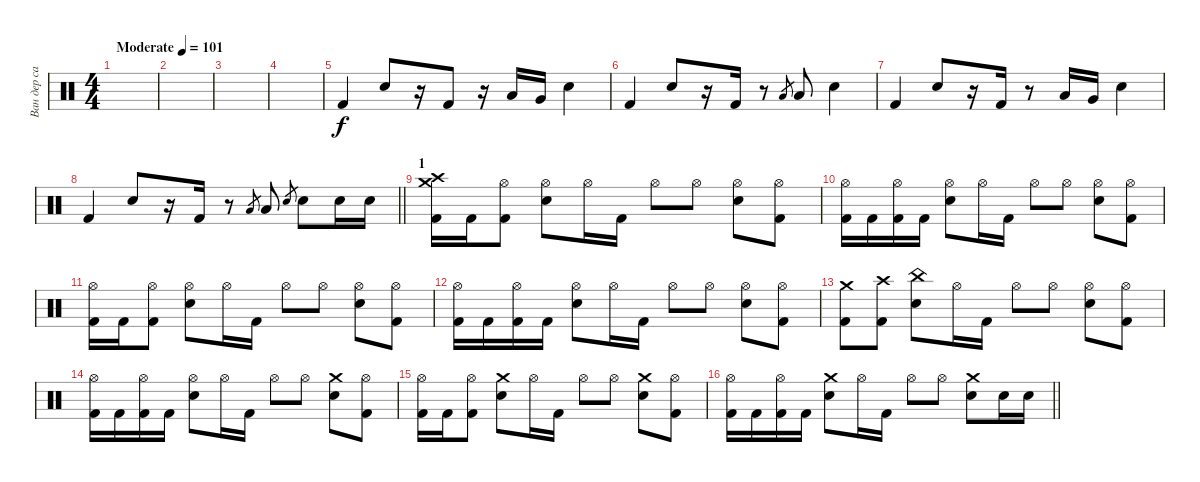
\track ("Ван дер сар" "Ван дер са") {instrument percussion}
\staff {score}
\articulation defaults
\ts (4 4)
\tempo (101 "Moderate")
\clef neutral
\ks c
|
|
|
|
"Kick (hit) 2".4 "Snare (hit) 2".8 r.16 "Kick (hit) 2".8 r.16 "Low Tom (hit)".16 "Very Low Tom (hit)".16 "Snare (hit) 2".4 |
"Kick (hit) 2".4 "Snare (hit) 2".8 r.16 "Kick (hit) 2".16 r.8 "Low Tom (hit)".8{gr} "Low Tom (hit)".8 "Snare (hit) 2".4 |
"Kick (hit) 2".4 "Snare (hit) 2".8 r.16 "Kick (hit) 2".16 r.8 "Low Tom (hit)".16 "Very Low Tom (hit)".16 "Snare (hit) 2".4 |
\barLineRight lightlight "Kick (hit) 2".4 "Snare (hit) 2".8
r.16 "Kick (hit) 2".16 r.8 "Low Tom (hit)".8{gr} "Low Tom (hit)".8 "Snare (hit) 2".8{gr} "Snare (hit) 2".8 "Snare (hit) 2".16 "Snare (hit) 2".16 |
\section ("" "1")
("Crash medium (hit)" "Crash high (hit)" "Kick (hit) 2").16 "Kick (hit) 2".16 ("Hi-Hat (open)" "Kick (hit) 2").8 ("Hi-Hat (open)" "Snare (hit) 2").8 "Hi-Hat (open)".16 "Kick (hit) 2".16 "Hi-Hat (open)".8 "Hi-Hat (open)".8 ("Hi-Hat (open)" "Snare (hit) 2").8 ("Hi-Hat (open)" "Kick (hit) 2").8 |
("Hi-Hat (open)" "Kick (hit) 2").16 "Kick (hit) 2".16 ("Hi-Hat (open)" "Kick (hit) 2").16 "Kick (hit) 2".16 ("Hi-Hat (open)" "Snare (hit) 2").8 "Hi-Hat (open)".16 "Kick (hit) 2".16 "Hi-Hat (open)".8 "Hi-Hat (open)".8 ("Hi-Hat (open)" "Snare (hit) 2").8 ("Hi-Hat (open)" "Kick (hit) 2").8 |
("Hi-Hat (open)" "Kick (hit) 2").16 "Kick (hit) 2".16 ("Hi-Hat (open)" "Kick (hit) 2").8 ("Hi-Hat (open)" "Snare (hit) 2").8 "Hi-Hat (open)".16 "Kick (hit) 2".16 "Hi-Hat (open)".8 "Hi-Hat (open)".8 ("Hi-Hat (open)" "Snare (hit) 2").8 ("Hi-Hat (open)" "Kick (hit) 2").8 |
("Hi-Hat (open)" "Kick (hit) 2").16 "Kick (hit) 2".16 ("Hi-Hat (open)" "Kick (hit) 2").16 "Kick (hit) 2".16 ("Hi-Hat (open)" "Snare (hit) 2").8 "Hi-Hat (open)".16 "Kick (hit) 2".16 "Hi-Hat (open)".8 "Hi-Hat (open)".8 ("Hi-Hat (open)" "Snare (hit) 2").8 ("Hi-Hat (open)" "Kick (hit) 2").8 |
("Crash medium (hit)" "Kick (hit) 2").8 ("Crash high (hit)" "Kick (hit) 2").8 ("China (hit)" "Snare (hit) 2").8 "Hi-Hat (open)".16 "Kick (hit) 2".16 "Hi-Hat (open)".8 "Hi-Hat (open)".8 ("Hi-Hat (open)" "Snare (hit) 2").8 ("Hi-Hat (open)" "Kick (hit) 2").8 |
("Hi-Hat (open)" "Kick (hit) 2").16 "Kick (hit) 2".16 ("Hi-Hat (open)" "Kick (hit) 2").16 "Kick (hit) 2".16 ("Hi-Hat (open)" "Snare (hit) 2").8 "Hi-Hat (open)".16 "Kick (hit) 2".16 "Hi-Hat (open)".8 "Hi-Hat (open)".8 ("Crash medium (hit)" "Snare (hit) 2").8 ("Hi-Hat (open)" "Kick (hit) 2").8 |
("Hi-Hat (open)" "Kick (hit) 2").16 "Kick (hit) 2".16 ("Hi-Hat (open)" "Kick (hit) 2").8 ("Crash medium (hit)" "Snare (hit) 2").8 "Hi-Hat (open)".16 "Kick (hit) 2".16 "Hi-Hat (open)".8 "Hi-Hat (open)".8 ("Crash medium (hit)" "Snare (hit) 2").8 ("Hi-Hat (open)" "Kick (hit) 2").8 |
\barLineRight lightlight
("Hi-Hat (open)" "Kick (hit) 2").16 "Kick (hit) 2".16 ("Hi-Hat (open)" "Kick (hit) 2").16 "Kick (hit) 2".16 ("Crash medium (hit)" "Snare (hit) 2").8 "Hi-Hat (open)".16 "Kick (hit) 2".16 "Hi-Hat (open)".8 "Hi-Hat (open)".8 ("Crash medium (hit)" "Snare (hit) 2").8 "Snare (hit) 2".16 "Snare (hit) 2".16
